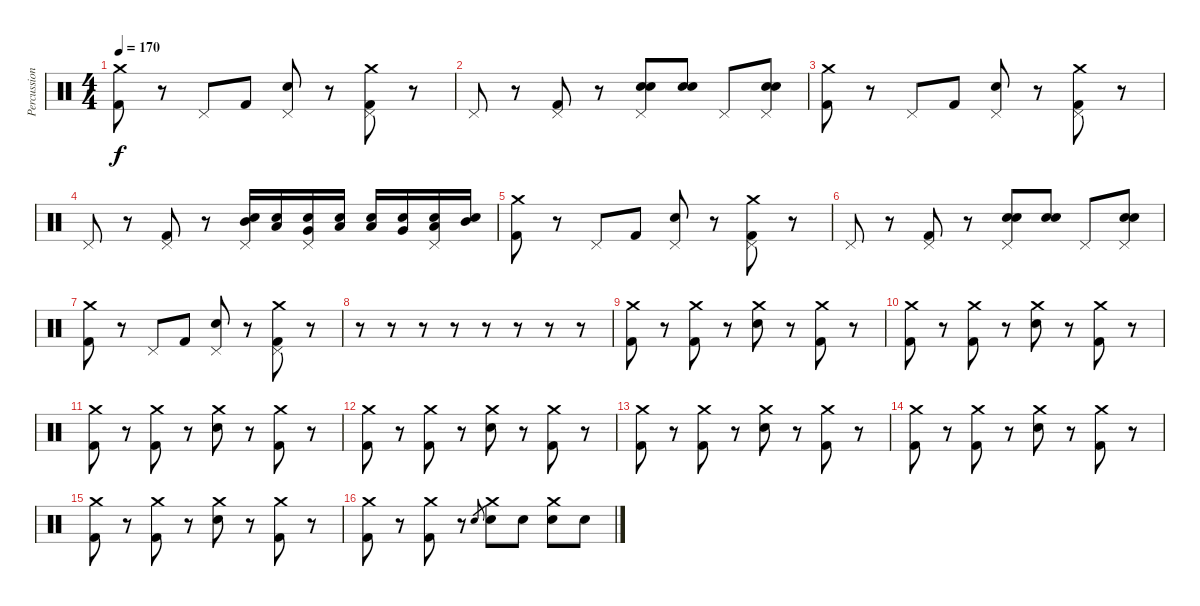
\track ("Percussion" "Percussion") {instrument percussion}
\staff {score}
\articulation defaults
\ts (4 4)
\tempo 170
\clef neutral
\ks c
("Crash medium (hit)" "Kick (hit) 2").8{dy f} r.8 "Pedal Hi-Hat (hit)".8 "Kick (hit) 2".8 ("Pedal Hi-Hat (hit)" "Electric Snare (hit)").8 r.8 ("Crash medium (hit)" "Pedal Hi-Hat (hit)" "Kick (hit) 2").8 r.8 |
"Pedal Hi-Hat (hit)".8 r.8 ("Pedal Hi-Hat (hit)" "Kick (hit) 2").8 r.8 ("Pedal Hi-Hat (hit)" "Electric Snare (hit)" "Electric Snare (hit)").8 ("Electric Snare (hit)" "Electric Snare (hit)").8 "Pedal Hi-Hat (hit)".8 ("Pedal Hi-Hat (hit)" "Electric Snare (hit)" "Electric Snare (hit)").8 |
("Crash medium (hit)" "Kick (hit) 2").8 r.8 "Pedal Hi-Hat (hit)".8 "Kick (hit) 2".8 ("Pedal Hi-Hat (hit)" "Electric Snare (hit)").8 r.8 ("Crash medium (hit)" "Pedal Hi-Hat (hit)" "Kick (hit) 2").8 r.8 |
"Pedal Hi-Hat (hit)".8 r.8 ("Pedal Hi-Hat (hit)" "Kick (hit) 2").8 r.8 ("Pedal Hi-Hat (hit)" "Mid Tom (hit)" "Electric Snare (hit)").16 ("Low Tom (hit)" "Electric Snare (hit)").16 ("Pedal Hi-Hat (hit)" "Very Low Tom (hit)" "Electric Snare (hit)").16 ("Low Floor Tom (hit)" "Electric Snare (hit)").16 ("Low Floor Tom (hit)" "Electric Snare (hit)").16 ("Very Low Tom (hit)" "Electric Snare (hit)").16 ("Pedal Hi-Hat (hit)" "Low Tom (hit)" "Electric Snare (hit)").16 ("Mid Tom (hit)" "Electric Snare (hit)").16 |
("Crash medium (hit)" "Kick (hit) 2").8 r.8 "Pedal Hi-Hat (hit)".8 "Kick (hit) 2".8 ("Pedal Hi-Hat (hit)" "Electric Snare (hit)").8 r.8 ("Crash medium (hit)" "Pedal Hi-Hat (hit)" "Kick (hit) 2").8 r.8 |
"Pedal Hi-Hat (hit)".8 r.8 ("Pedal Hi-Hat (hit)" "Kick (hit) 2").8 r.8 ("Pedal Hi-Hat (hit)" "Electric Snare (hit)" "Electric Snare (hit)").8 ("Electric Snare (hit)" "Electric Snare (hit)").8 "Pedal Hi-Hat (hit)".8 ("Pedal Hi-Hat (hit)" "Electric Snare (hit)" "Electric Snare (hit)").8 |
("Crash medium (hit)" "Kick (hit) 2").8 r.8 "Pedal Hi-Hat (hit)".8 "Kick (hit) 2".8 ("Pedal Hi-Hat (hit)" "Electric Snare (hit)").8 r.8 ("Crash medium (hit)" "Pedal Hi-Hat (hit)" "Kick (hit) 2").8 r.8 |
r.8 r.8 r.8 r.8 r.8 r.8 r.8 r.8 |
("Crash medium (hit)" "Kick (hit) 2").8 r.8 ("Crash medium (hit)" "Kick (hit) 2").8 r.8 ("Crash medium (hit)" "Electric Snare (hit)").8 r.8 ("Crash medium (hit)" "Kick (hit) 2").8 r.8 |
("Crash medium (hit)" "Kick (hit) 2").8 r.8 ("Crash medium (hit)" "Kick (hit) 2").8 r.8 ("Crash medium (hit)" "Electric Snare (hit)").8 r.8 ("Crash medium (hit)" "Kick (hit) 2").8 r.8 |
("Crash medium (hit)" "Kick (hit) 2").8 r.8 ("Crash medium (hit)" "Kick (hit) 2").8 r.8 ("Crash medium (hit)" "Electric Snare (hit)").8 r.8 ("Crash medium (hit)" "Kick (hit) 2").8 r.8 |
("Crash medium (hit)" "Kick (hit) 2").8 r.8 ("Crash medium (hit)" "Kick (hit) 2").8 r.8 ("Crash medium (hit)" "Electric Snare (hit)").8 r.8 ("Crash medium (hit)" "Kick (hit) 2").8 r.8 |
("Crash medium (hit)" "Kick (hit) 2").8 r.8 ("Crash medium (hit)" "Kick (hit) 2").8 r.8 ("Crash medium (hit)" "Electric Snare (hit)").8 r.8 ("Crash medium (hit)" "Kick (hit) 2").8 r.8 |
("Crash medium (hit)" "Kick (hit) 2").8 r.8 ("Crash medium (hit)" "Kick (hit) 2").8 r.8 ("Crash medium (hit)" "Electric Snare (hit)").8 r.8 ("Crash medium (hit)" "Kick (hit) 2").8 r.8 |
("Crash medium (hit)" "Kick (hit) 2").8 r.8 ("Crash medium (hit)" "Kick (hit) 2").8 r.8 ("Crash medium (hit)" "Electric Snare (hit)").8 r.8 ("Crash medium (hit)" "Kick (hit) 2").8 r.8 |
("Crash medium (hit)" "Kick (hit) 2").8 r.8 ("Crash medium (hit)" "Kick (hit) 2").8 r.8 "Electric Snare (hit)".8{gr} ("Crash medium (hit)" "Electric Snare (hit)").8 "Electric Snare (hit)".8 ("Crash medium (hit)" "Electric Snare (hit)").8 "Electric Snare (hit)".8
